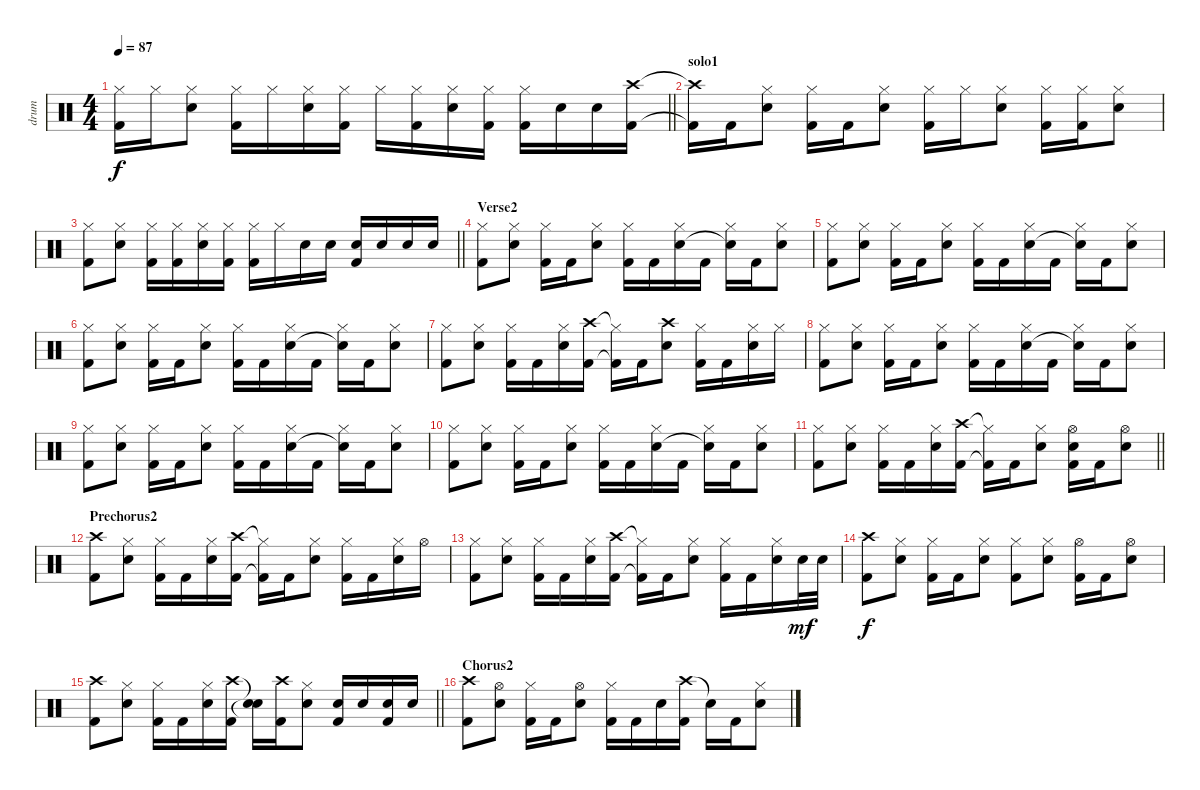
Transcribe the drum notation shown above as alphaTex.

\track ("drum" "drum") {instrument percussion}
\staff {score}
\articulation defaults
\ts (4 4)
\tempo 87
\clef neutral
\barLineRight lightlight
\ks c
("Hi-Hat (closed)" "Kick (hit) 2").16{dy f} "Hi-Hat (closed)".16 ("Hi-Hat (closed)" "Snare (hit) 2").8 ("Hi-Hat (closed)" "Kick (hit) 2").16 "Hi-Hat (closed)".16 ("Hi-Hat (closed)" "Snare (hit) 2").16 ("Hi-Hat (closed)" "Kick (hit) 2").16 "Hi-Hat (closed)".16 ("Hi-Hat (closed)" "Kick (hit) 2").16 ("Hi-Hat (closed)" "Snare (hit) 2").16 ("Hi-Hat (closed)" "Kick (hit) 2").16 ("Hi-Hat (closed)" "Kick (hit) 2").16 "Snare (hit) 2".16 "Snare (hit) 2".16 ("Crash high (hit)" "Kick (hit) 2").16 |
\section ("" "solo1")
("Crash high (hit)"{t} "Kick (hit) 2"{t}).16 "Kick (hit) 2".16 ("Hi-Hat (closed)" "Snare (hit) 2").8 ("Hi-Hat (closed)" "Kick (hit) 2").16 "Kick (hit) 2".16 ("Hi-Hat (closed)" "Snare (hit) 2").8 ("Hi-Hat (closed)" "Kick (hit) 2").16 "Hi-Hat (closed)".16 ("Hi-Hat (closed)" "Snare (hit) 2").8 ("Hi-Hat (closed)" "Kick (hit) 2").16 ("Hi-Hat (closed)" "Kick (hit) 2").16 ("Hi-Hat (closed)" "Snare (hit) 2").8 |
\barLineRight lightlight
("Hi-Hat (closed)" "Kick (hit) 2").8 ("Hi-Hat (closed)" "Snare (hit) 2").8 ("Hi-Hat (closed)" "Kick (hit) 2").16 ("Hi-Hat (closed)" "Kick (hit) 2").16 ("Hi-Hat (closed)" "Snare (hit) 2").16 ("Hi-Hat (closed)" "Kick (hit) 2").16 ("Hi-Hat (closed)" "Kick (hit) 2").16 "Hi-Hat (closed)".16 "Snare (hit) 2".16 "Snare (hit) 2".16 ("Snare (hit) 2" "Kick (hit) 2").16 "Snare (hit) 2".16 "Snare (hit) 2".16 "Snare (hit) 2".16 |
\section ("" "Verse2")
("Hi-Hat (closed)" "Kick (hit) 2").8 ("Hi-Hat (closed)" "Snare (hit) 2").8 ("Hi-Hat (closed)" "Kick (hit) 2").16 "Kick (hit) 2".16 ("Hi-Hat (closed)" "Snare (hit) 2").8 ("Hi-Hat (closed)" "Kick (hit) 2").16 "Kick (hit) 2".16 ("Hi-Hat (closed)" "Snare (hit) 2").16 "Kick (hit) 2".16 ("Hi-Hat (closed)" "Snare (hit)"{t}).16 "Kick (hit) 2".16 ("Hi-Hat (closed)" "Snare (hit) 2").8 |
("Hi-Hat (closed)" "Kick (hit) 2").8 ("Hi-Hat (closed)" "Snare (hit) 2").8 ("Hi-Hat (closed)" "Kick (hit) 2").16 "Kick (hit) 2".16 ("Hi-Hat (closed)" "Snare (hit) 2").8 ("Hi-Hat (closed)" "Kick (hit) 2").16 "Kick (hit) 2".16 ("Hi-Hat (closed)" "Snare (hit) 2").16 "Kick (hit) 2".16 ("Hi-Hat (closed)" "Snare (hit)"{t}).16 "Kick (hit) 2".16 ("Hi-Hat (closed)" "Snare (hit) 2").8 |
("Hi-Hat (closed)" "Kick (hit) 2").8 ("Hi-Hat (closed)" "Snare (hit) 2").8 ("Hi-Hat (closed)" "Kick (hit) 2").16 "Kick (hit) 2".16 ("Hi-Hat (closed)" "Snare (hit) 2").8 ("Hi-Hat (closed)" "Kick (hit) 2").16 "Kick (hit) 2".16 ("Hi-Hat (closed)" "Snare (hit) 2").16 "Kick (hit) 2".16 ("Hi-Hat (closed)" "Snare (hit)"{t}).16 "Kick (hit) 2".16 ("Hi-Hat (closed)" "Snare (hit) 2").8 |
("Hi-Hat (closed)" "Kick (hit) 2").8 ("Hi-Hat (closed)" "Snare (hit) 2").8 ("Hi-Hat (closed)" "Kick (hit) 2").16 "Kick (hit) 2".16 ("Hi-Hat (closed)" "Snare (hit) 2").16 ("Crash high (hit)" "Kick (hit) 2").16 ("Hi-Hat (closed)"{t} "Kick (hit) 2"{t}).16 "Kick (hit) 2".16 ("Crash high (hit)" "Snare (hit) 2").8 ("Hi-Hat (closed)" "Kick (hit) 2").16 "Kick (hit) 2".16 ("Hi-Hat (closed)" "Snare (hit) 2").16 "Hi-Hat (closed)".16 |
("Hi-Hat (closed)" "Kick (hit) 2").8 ("Hi-Hat (closed)" "Snare (hit) 2").8 ("Hi-Hat (closed)" "Kick (hit) 2").16 "Kick (hit) 2".16 ("Hi-Hat (closed)" "Snare (hit) 2").8 ("Hi-Hat (closed)" "Kick (hit) 2").16 "Kick (hit) 2".16 ("Hi-Hat (closed)" "Snare (hit) 2").16 "Kick (hit) 2".16 ("Hi-Hat (closed)" "Snare (hit)"{t}).16 "Kick (hit) 2".16 ("Hi-Hat (closed)" "Snare (hit) 2").8 |
("Hi-Hat (closed)" "Kick (hit) 2").8 ("Hi-Hat (closed)" "Snare (hit) 2").8 ("Hi-Hat (closed)" "Kick (hit) 2").16 "Kick (hit) 2".16 ("Hi-Hat (closed)" "Snare (hit) 2").8 ("Hi-Hat (closed)" "Kick (hit) 2").16 "Kick (hit) 2".16 ("Hi-Hat (closed)" "Snare (hit) 2").16 "Kick (hit) 2".16 ("Hi-Hat (closed)" "Snare (hit)"{t}).16 "Kick (hit) 2".16 ("Hi-Hat (closed)" "Snare (hit) 2").8 |
("Hi-Hat (closed)" "Kick (hit) 2").8 ("Hi-Hat (closed)" "Snare (hit) 2").8 ("Hi-Hat (closed)" "Kick (hit) 2").16 "Kick (hit) 2".16 ("Hi-Hat (closed)" "Snare (hit) 2").8 ("Hi-Hat (closed)" "Kick (hit) 2").16 "Kick (hit) 2".16 ("Hi-Hat (closed)" "Snare (hit) 2").16 "Kick (hit) 2".16 ("Hi-Hat (closed)" "Snare (hit)"{t}).16 "Kick (hit) 2".16 ("Hi-Hat (closed)" "Snare (hit) 2").8 |
\barLineRight lightlight
("Hi-Hat (closed)" "Kick (hit) 2").8 ("Hi-Hat (closed)" "Snare (hit) 2").8 ("Hi-Hat (closed)" "Kick (hit) 2").16 "Kick (hit) 2".16 ("Hi-Hat (closed)" "Snare (hit) 2").16 ("Crash high (hit)" "Kick (hit) 2").16 ("Hi-Hat (closed)"{t} "Kick (hit) 2"{t}).16 "Kick (hit) 2".16 ("Hi-Hat (closed)" "Snare (hit) 2").8 ("Hi-Hat (open)" "Snare (hit) 2" "Kick (hit) 2").16 "Kick (hit) 2".16 ("Hi-Hat (open)" "Snare (hit) 2").8 |
\section ("" "Prechorus2")
("Crash high (hit)" "Kick (hit) 2").8 ("Hi-Hat (closed)" "Snare (hit) 2").8 ("Hi-Hat (closed)" "Kick (hit) 2").16 "Kick (hit) 2".16 ("Hi-Hat (closed)" "Snare (hit) 2").16 ("Crash high (hit)" "Kick (hit) 2").16 ("Hi-Hat (closed)"{t} "Kick (hit) 2"{t}).16 "Kick (hit) 2".16 ("Hi-Hat (closed)" "Snare (hit) 2").8 ("Hi-Hat (closed)" "Kick (hit) 2").16 "Kick (hit) 2".16 ("Hi-Hat (closed)" "Snare (hit) 2").16 "Hi-Hat (open)".16 |
("Hi-Hat (closed)" "Kick (hit) 2").8 ("Hi-Hat (closed)" "Snare (hit) 2").8 ("Hi-Hat (closed)" "Kick (hit) 2").16 "Kick (hit) 2".16 ("Hi-Hat (closed)" "Snare (hit) 2").16 ("Crash high (hit)" "Kick (hit) 2").16 ("Hi-Hat (closed)"{t} "Kick (hit) 2"{t}).16 "Kick (hit) 2".16 ("Hi-Hat (closed)" "Snare (hit) 2").8 ("Hi-Hat (closed)" "Kick (hit) 2").16 "Kick (hit) 2".16 ("Hi-Hat (closed)" "Snare (hit) 2").16 "Snare (hit) 2".32{dy mf} "Snare (hit) 2".32 |
("Crash high (hit)" "Kick (hit) 2").8{dy f} ("Hi-Hat (closed)" "Snare (hit) 2").8 ("Hi-Hat (closed)" "Kick (hit) 2").16 "Kick (hit) 2".16 ("Hi-Hat (closed)" "Snare (hit) 2").8 ("Hi-Hat (closed)" "Kick (hit) 2").8 ("Hi-Hat (closed)" "Snare (hit) 2").8 ("Hi-Hat (open)" "Kick (hit) 2").16 "Kick (hit) 2".16 ("Hi-Hat (open)" "Snare (hit) 2").8 |
\barLineRight lightlight
("Crash high (hit)" "Kick (hit) 2").8 ("Hi-Hat (closed)" "Snare (hit) 2").8 ("Hi-Hat (closed)" "Kick (hit) 2").16 "Kick (hit) 2".16 ("Hi-Hat (closed)" "Snare (hit) 2").16 ("Crash high (hit)" "Kick (hit) 2").16 ("Snare (hit)"{t} "Snare (hit)"{t}).16 ("Crash high (hit)" "Kick (hit) 2").16 ("Hi-Hat (closed)" "Snare (hit) 2").8 ("Snare (hit) 2" "Kick (hit) 2").16 "Snare (hit) 2".16 ("Snare (hit) 2" "Kick (hit) 2").16 "Snare (hit) 2".16 |
\section ("" "Chorus2")
("Crash high (hit)" "Kick (hit) 2").8 ("Hi-Hat (open)" "Snare (hit) 2").8 ("Hi-Hat (closed)" "Kick (hit) 2").16 "Kick (hit) 2".16 ("Hi-Hat (open)" "Snare (hit) 2").8 ("Hi-Hat (closed)" "Kick (hit) 2").16 "Kick (hit) 2".16 "Snare (hit) 2".16 ("Crash high (hit)" "Kick (hit) 2").16 "Snare (hit)"{t}.16 "Kick (hit) 2".16 ("Hi-Hat (closed)" "Snare (hit) 2").8
